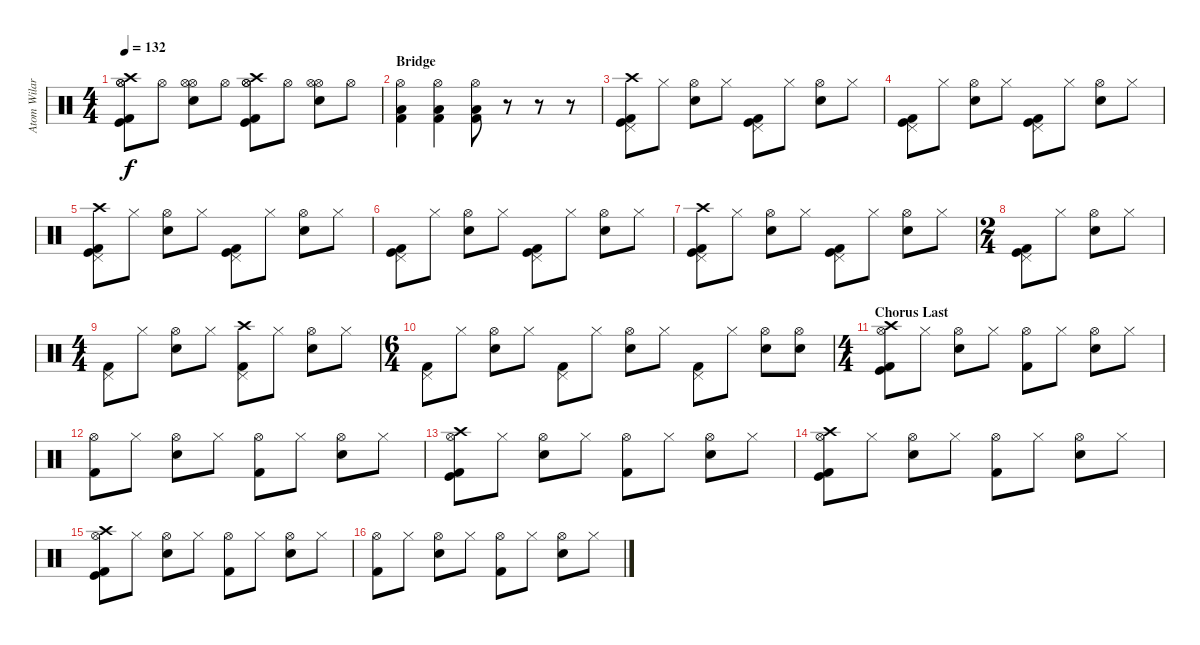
\track ("Atom Wilard or Ron Welty ?" "Atom Wilar") {instrument percussion}
\staff {score}
\articulation defaults
\ts (4 4)
\tempo 132
\clef neutral
\ks c
("Hi-Hat (open)" "Hi-Hat (open)" "Crash high (hit)" "Kick (hit)" "Kick (hit) 2").8{dy f} "Hi-Hat (open)".8 ("Hi-Hat (open)" "Hi-Hat (open)" "Electric Snare (hit)").8 "Hi-Hat (open)".8 ("Hi-Hat (open)" "Hi-Hat (open)" "Crash high (hit)" "Kick (hit)" "Kick (hit) 2").8 "Hi-Hat (open)".8 ("Hi-Hat (open)" "Hi-Hat (open)" "Electric Snare (hit)").8 "Hi-Hat (open)".8 |
\section ("" "Bridge")
("Hi-Hat (open)" "Kick (hit) 2" "Low Floor Tom (hit)").4 ("Hi-Hat (open)" "Kick (hit) 2" "Low Floor Tom (hit)").4 ("Hi-Hat (open)" "Kick (hit) 2" "Low Floor Tom (hit)").8 r.8 r.8 r.8 |
("Pedal Hi-Hat (hit)" "Crash high (hit)" "Kick (hit)" "Kick (hit) 2").8 "Hi-Hat (closed)".8 ("Hi-Hat (open)" "Electric Snare (hit)").8 "Hi-Hat (closed)".8 ("Pedal Hi-Hat (hit)" "Kick (hit)" "Kick (hit) 2").8 "Hi-Hat (closed)".8 ("Hi-Hat (open)" "Electric Snare (hit)").8 "Hi-Hat (closed)".8 |
("Pedal Hi-Hat (hit)" "Kick (hit)" "Kick (hit) 2").8 "Hi-Hat (closed)".8 ("Hi-Hat (open)" "Electric Snare (hit)").8 "Hi-Hat (closed)".8 ("Pedal Hi-Hat (hit)" "Kick (hit)" "Kick (hit) 2").8 "Hi-Hat (closed)".8 ("Hi-Hat (open)" "Electric Snare (hit)").8 "Hi-Hat (closed)".8 |
("Pedal Hi-Hat (hit)" "Crash high (hit)" "Kick (hit)" "Kick (hit) 2").8 "Hi-Hat (closed)".8 ("Hi-Hat (open)" "Electric Snare (hit)").8 "Hi-Hat (closed)".8 ("Pedal Hi-Hat (hit)" "Kick (hit)" "Kick (hit) 2").8 "Hi-Hat (closed)".8 ("Hi-Hat (open)" "Electric Snare (hit)").8 "Hi-Hat (closed)".8 |
("Pedal Hi-Hat (hit)" "Kick (hit)" "Kick (hit) 2").8 "Hi-Hat (closed)".8 ("Hi-Hat (open)" "Electric Snare (hit)").8 "Hi-Hat (closed)".8 ("Pedal Hi-Hat (hit)" "Kick (hit)" "Kick (hit) 2").8 "Hi-Hat (closed)".8 ("Hi-Hat (open)" "Electric Snare (hit)").8 "Hi-Hat (closed)".8 |
("Pedal Hi-Hat (hit)" "Crash high (hit)" "Kick (hit)" "Kick (hit) 2").8 "Hi-Hat (closed)".8 ("Hi-Hat (open)" "Electric Snare (hit)").8 "Hi-Hat (closed)".8 ("Pedal Hi-Hat (hit)" "Kick (hit)" "Kick (hit) 2").8 "Hi-Hat (closed)".8 ("Hi-Hat (open)" "Electric Snare (hit)").8 "Hi-Hat (closed)".8 |
\ts (2 4)
("Pedal Hi-Hat (hit)" "Kick (hit)" "Kick (hit) 2").8 "Hi-Hat (closed)".8 ("Hi-Hat (open)" "Electric Snare (hit)").8 "Hi-Hat (closed)".8 |
\ts (4 4)
("Pedal Hi-Hat (hit)" "Kick (hit) 2").8 "Hi-Hat (closed)".8 ("Hi-Hat (open)" "Electric Snare (hit)").8 "Hi-Hat (closed)".8 ("Pedal Hi-Hat (hit)" "Crash high (hit)" "Kick (hit) 2").8 "Hi-Hat (closed)".8 ("Hi-Hat (open)" "Electric Snare (hit)").8 "Hi-Hat (closed)".8 |
\ts (6 4)
("Pedal Hi-Hat (hit)" "Kick (hit) 2").8 "Hi-Hat (closed)".8 ("Hi-Hat (open)" "Electric Snare (hit)").8 "Hi-Hat (closed)".8 ("Pedal Hi-Hat (hit)" "Kick (hit) 2").8 "Hi-Hat (closed)".8 ("Hi-Hat (open)" "Electric Snare (hit)").8 "Hi-Hat (closed)".8 ("Pedal Hi-Hat (hit)" "Kick (hit) 2").8 "Hi-Hat (closed)".8 ("Hi-Hat (open)" "Electric Snare (hit)").8 ("Hi-Hat (open)" "Electric Snare (hit)").8 |
\ts (4 4)
\section ("" "Chorus Last")
("Hi-Hat (open)" "Crash high (hit)" "Kick (hit)" "Kick (hit) 2").8 "Hi-Hat (closed)".8 ("Hi-Hat (open)" "Electric Snare (hit)").8 "Hi-Hat (closed)".8 ("Hi-Hat (open)" "Kick (hit) 2").8 "Hi-Hat (closed)".8 ("Hi-Hat (open)" "Electric Snare (hit)").8 "Hi-Hat (closed)".8 |
("Hi-Hat (open)" "Kick (hit) 2").8 "Hi-Hat (closed)".8 ("Hi-Hat (open)" "Electric Snare (hit)").8 "Hi-Hat (closed)".8 ("Hi-Hat (open)" "Kick (hit) 2").8 "Hi-Hat (closed)".8 ("Hi-Hat (open)" "Electric Snare (hit)").8 "Hi-Hat (closed)".8 |
("Hi-Hat (open)" "Crash high (hit)" "Kick (hit)" "Kick (hit) 2").8 "Hi-Hat (closed)".8 ("Hi-Hat (open)" "Electric Snare (hit)").8 "Hi-Hat (closed)".8 ("Hi-Hat (open)" "Kick (hit) 2").8 "Hi-Hat (closed)".8 ("Hi-Hat (open)" "Electric Snare (hit)").8 "Hi-Hat (closed)".8 |
("Hi-Hat (open)" "Crash high (hit)" "Kick (hit)" "Kick (hit) 2").8 "Hi-Hat (closed)".8 ("Hi-Hat (open)" "Electric Snare (hit)").8 "Hi-Hat (closed)".8 ("Hi-Hat (open)" "Kick (hit) 2").8 "Hi-Hat (closed)".8 ("Hi-Hat (open)" "Electric Snare (hit)").8 "Hi-Hat (closed)".8 |
("Hi-Hat (open)" "Crash high (hit)" "Kick (hit)" "Kick (hit) 2").8 "Hi-Hat (closed)".8 ("Hi-Hat (open)" "Electric Snare (hit)").8 "Hi-Hat (closed)".8 ("Hi-Hat (open)" "Kick (hit) 2").8 "Hi-Hat (closed)".8 ("Hi-Hat (open)" "Electric Snare (hit)").8 "Hi-Hat (closed)".8 |
("Hi-Hat (open)" "Kick (hit) 2").8 "Hi-Hat (closed)".8 ("Hi-Hat (open)" "Electric Snare (hit)").8 "Hi-Hat (closed)".8 ("Hi-Hat (open)" "Kick (hit) 2").8 "Hi-Hat (closed)".8 ("Hi-Hat (open)" "Electric Snare (hit)").8 "Hi-Hat (closed)".8
